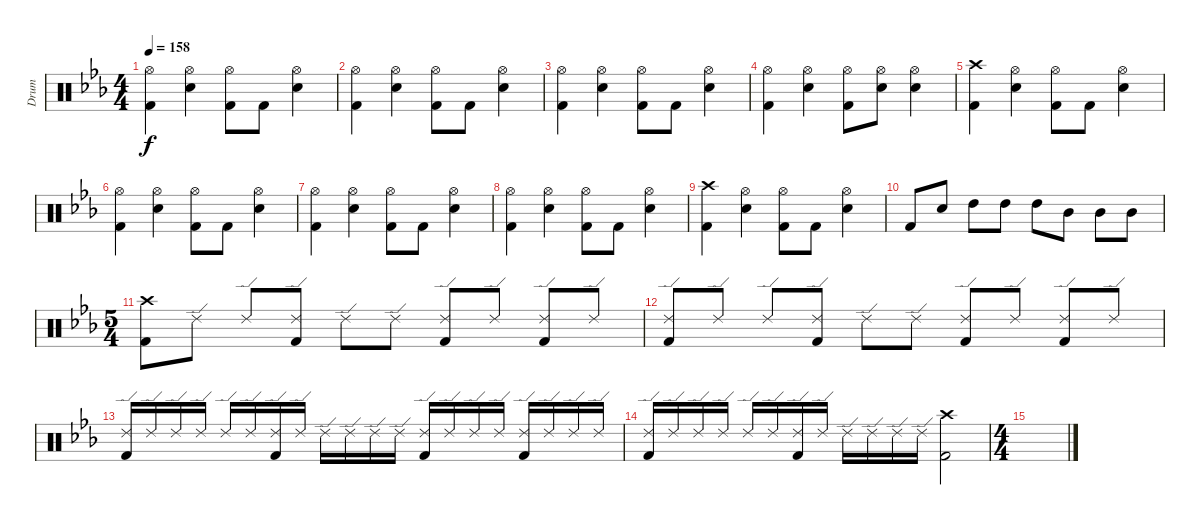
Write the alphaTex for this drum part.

\track ("Drum" "Drum") {instrument percussion}
\staff {score}
\articulation defaults
\ts (4 4)
\tempo 158
\clef neutral
\ks eb
("Hi-Hat (open)" "Kick (hit) 2").4{dy f} ("Hi-Hat (open)" "Snare (hit) 2").4 ("Hi-Hat (open)" "Kick (hit) 2").8 "Kick (hit) 2".8 ("Hi-Hat (open)" "Snare (hit) 2").4 |
("Hi-Hat (open)" "Kick (hit) 2").4 ("Hi-Hat (open)" "Snare (hit) 2").4 ("Hi-Hat (open)" "Kick (hit) 2").8 "Kick (hit) 2".8 ("Hi-Hat (open)" "Snare (hit) 2").4 |
("Hi-Hat (open)" "Kick (hit) 2").4 ("Hi-Hat (open)" "Snare (hit) 2").4 ("Hi-Hat (open)" "Kick (hit) 2").8 "Kick (hit) 2".8 ("Hi-Hat (open)" "Snare (hit) 2").4 |
("Hi-Hat (open)" "Kick (hit) 2").4 ("Hi-Hat (open)" "Snare (hit) 2").4 ("Hi-Hat (open)" "Kick (hit) 2").8 ("Hi-Hat (open)" "Snare (hit) 2").8 ("Hi-Hat (open)" "Snare (hit) 2").4 |
("Crash high (hit)" "Kick (hit) 2").4 ("Hi-Hat (open)" "Snare (hit) 2").4 ("Hi-Hat (open)" "Kick (hit) 2").8 "Kick (hit) 2".8 ("Hi-Hat (open)" "Snare (hit) 2").4 |
("Hi-Hat (open)" "Kick (hit) 2").4 ("Hi-Hat (open)" "Snare (hit) 2").4 ("Hi-Hat (open)" "Kick (hit) 2").8 "Kick (hit) 2".8 ("Hi-Hat (open)" "Snare (hit) 2").4 |
("Hi-Hat (open)" "Kick (hit) 2").4 ("Hi-Hat (open)" "Snare (hit) 2").4 ("Hi-Hat (open)" "Kick (hit) 2").8 "Kick (hit) 2".8 ("Hi-Hat (open)" "Snare (hit) 2").4 |
("Hi-Hat (open)" "Kick (hit) 2").4 ("Hi-Hat (open)" "Snare (hit) 2").4 ("Hi-Hat (open)" "Kick (hit) 2").8 "Kick (hit) 2".8 ("Hi-Hat (open)" "Snare (hit) 2").4 |
("Crash high (hit)" "Kick (hit) 2").4 ("Hi-Hat (open)" "Snare (hit) 2").4 ("Hi-Hat (open)" "Kick (hit) 2").8 "Kick (hit) 2".8 ("Hi-Hat (open)" "Snare (hit) 2").4 |
"Kick (hit) 2".8 "Snare (hit) 2".8 "High Tom (hit)".8 "High Tom (hit)".8 "High Tom (hit)".8 "Mid Tom (hit)".8 "Mid Tom (hit)".8 "Mid Tom (hit)".8 |
\ts (5 4)
("Crash high (hit)" "Kick (hit) 2").8 "Ride (edge) 2".8 "Ride (edge) 2".8 ("Ride (edge) 2" "Kick (hit) 2").8 "Ride (edge) 2".8 "Ride (edge) 2".8 ("Ride (edge) 2" "Kick (hit) 2").8 "Ride (edge) 2".8 ("Ride (edge) 2" "Kick (hit) 2").8 "Ride (edge) 2".8 |
("Ride (edge) 2" "Kick (hit) 2").8 "Ride (edge) 2".8 "Ride (edge) 2".8 ("Ride (edge) 2" "Kick (hit) 2").8 "Ride (edge) 2".8 "Ride (edge) 2".8 ("Ride (edge) 2" "Kick (hit) 2").8 "Ride (edge) 2".8 ("Ride (edge) 2" "Kick (hit) 2").8 "Ride (edge) 2".8 |
("Ride (edge) 2" "Kick (hit) 2").16 "Ride (edge) 2".16 "Ride (edge) 2".16 "Ride (edge) 2".16 "Ride (edge) 2".16 "Ride (edge) 2".16 ("Ride (edge) 2" "Kick (hit) 2").16 "Ride (edge) 2".16 "Ride (edge) 2".16 "Ride (edge) 2".16 "Ride (edge) 2".16 "Ride (edge) 2".16 ("Ride (edge) 2" "Kick (hit) 2").16 "Ride (edge) 2".16 "Ride (edge) 2".16 "Ride (edge) 2".16 ("Ride (edge) 2" "Kick (hit) 2").16 "Ride (edge) 2".16 "Ride (edge) 2".16 "Ride (edge) 2".16 |
("Ride (edge) 2" "Kick (hit) 2").16 "Ride (edge) 2".16 "Ride (edge) 2".16 "Ride (edge) 2".16 "Ride (edge) 2".16 "Ride (edge) 2".16 ("Ride (edge) 2" "Kick (hit) 2").16 "Ride (edge) 2".16 "Ride (edge) 2".16 "Ride (edge) 2".16 "Ride (edge) 2".16 "Ride (edge) 2".16 ("Crash high (hit)" "Kick (hit) 2").2 |
\ts (4 4)
